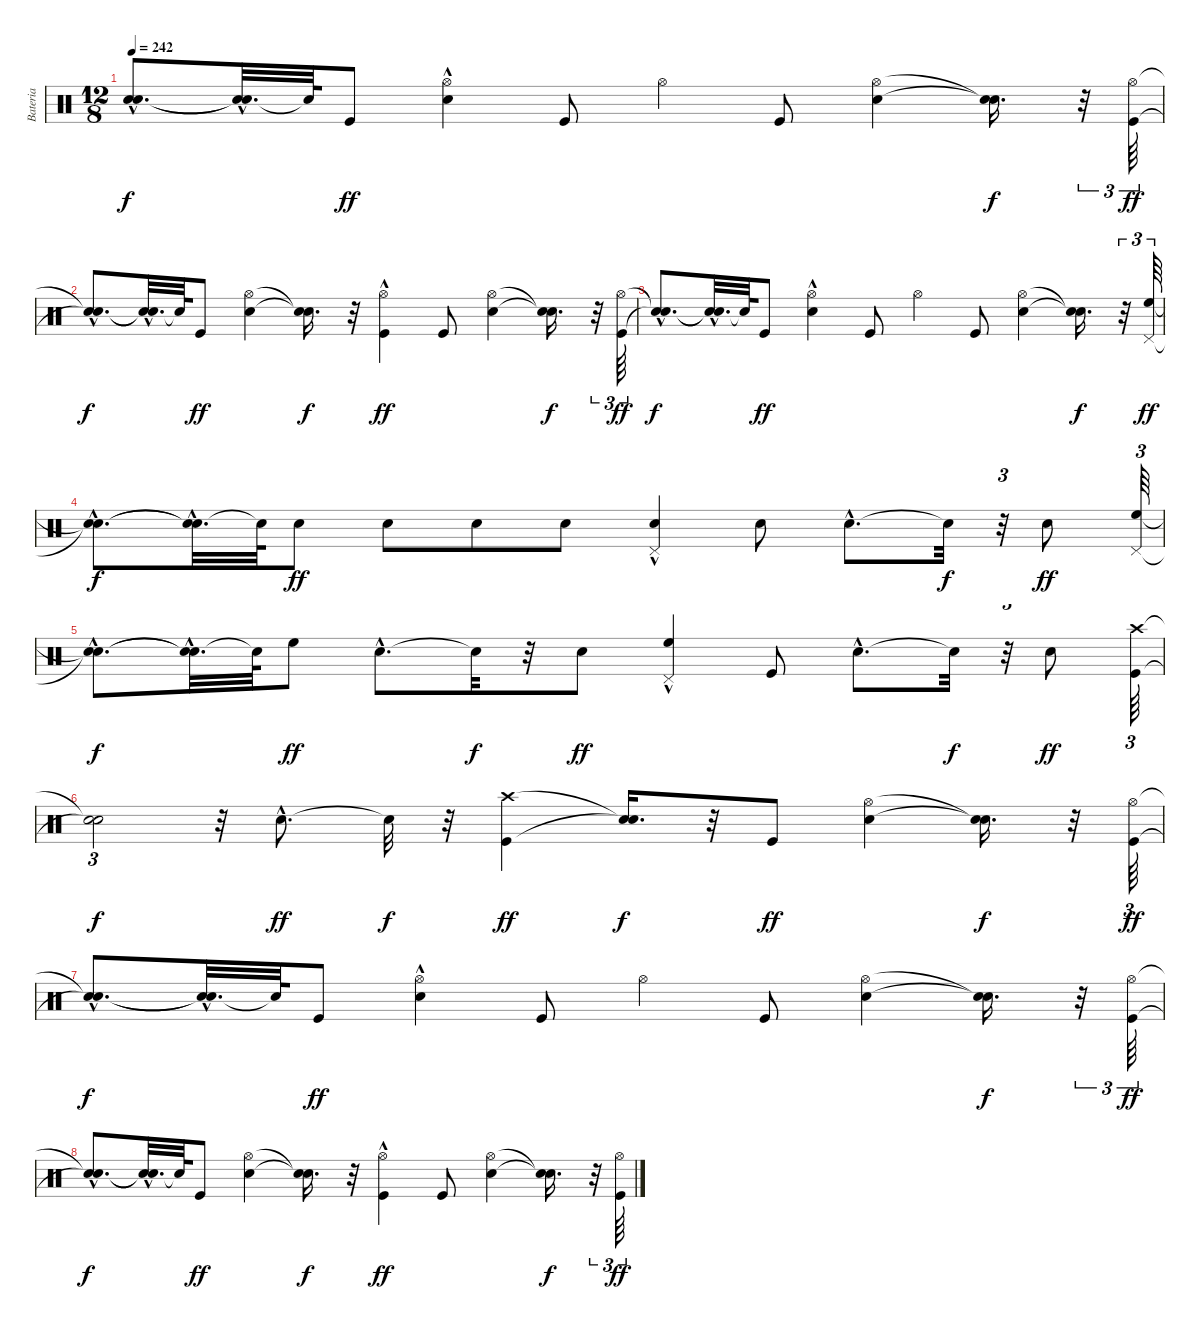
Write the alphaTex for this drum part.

\track ("Bateria" "Bateria") {instrument percussion}
\staff {score}
\articulation defaults
\ts (12 8)
\tempo 242
\clef neutral
\ks c
("Snare (hit)"{hac t} "Snare (hit)"{hac t}).8{d dy f} ("Snare (hit)"{t} "Snare (hit)"{hac t}).32{d} "Snare (hit)"{t}.64 "Kick (hit)".8{dy ff} ("Snare (hit) 2"{hac} "Hi-Hat (open)").4 "Kick (hit)".8 "Hi-Hat (open)".4 "Kick (hit)".8 ("Snare (hit) 2" "Hi-Hat (open)").4 ("Snare (hit)"{t} "Snare (hit)"{t}).16{d dy f} r.32{tu (3 2)} ("Kick (hit)" "Hi-Hat (open)").64{tu (3 2) dy ff} |
("Snare (hit)"{hac t} "Snare (hit)"{hac t}).8{d dy f} ("Snare (hit)"{t} "Snare (hit)"{hac t}).32{d} "Snare (hit)"{t}.64 "Kick (hit)".8{dy ff} ("Snare (hit) 2" "Hi-Hat (open)").4 ("Snare (hit)"{t} "Snare (hit)"{t}).16{d dy f} r.32 ("Kick (hit)"{hac} "Hi-Hat (open)").4{dy ff} "Kick (hit)".8 ("Snare (hit) 2" "Hi-Hat (open)").4 ("Snare (hit)"{t} "Snare (hit)"{t}).16{d dy f} r.32{tu (3 2)} ("Kick (hit)" "Hi-Hat (open)").64{tu (3 2) dy ff} |
("Snare (hit)"{hac t} "Snare (hit)"{hac t}).8{d dy f} ("Snare (hit)"{t} "Snare (hit)"{hac t}).32{d} "Snare (hit)"{t}.64 "Kick (hit)".8{dy ff} ("Snare (hit) 2"{hac} "Hi-Hat (open)").4 "Kick (hit)".8 "Hi-Hat (open)".4 "Kick (hit)".8 ("Snare (hit) 2" "Hi-Hat (open)").4 ("Snare (hit)"{t} "Snare (hit)"{t}).16{d dy f} r.32{tu (3 2)} ("Pedal Hi-Hat (hit)" "High Floor Tom (hit)").64{tu (3 2) dy ff} |
("Snare (hit)"{hac t} "Snare (hit)"{hac t}).8{d dy f} ("Snare (hit)"{hac t} "Snare (hit)"{t}).32{d} "Snare (hit)"{t}.64 "Snare (hit) 2".8{dy ff} "Snare (hit) 2".8 "Snare (hit) 2".8 "Snare (hit) 2".8 ("Snare (hit) 2"{hac} "Pedal Hi-Hat (hit)").4 "Snare (hit) 2".8 "Snare (hit) 2"{hac}.8{d} "Snare (hit)"{t}.32{dy f} r.32{tu (3 2)} "Snare (hit) 2".8{dy ff} ("Pedal Hi-Hat (hit)" "High Floor Tom (hit)").64{tu (3 2)} |
("Snare (hit)"{hac t} "Snare (hit)"{hac t}).8{d dy f} ("Snare (hit)"{hac t} "Snare (hit)"{t}).32{d} "Snare (hit)"{t}.64 "High Floor Tom (hit)".8{dy ff} "Snare (hit) 2"{hac}.8{d} "Snare (hit)"{t}.32{dy f} r.32 "Snare (hit) 2".8{dy ff} ("Pedal Hi-Hat (hit)" "High Floor Tom (hit)"{hac}).4 "Kick (hit)".8 "Snare (hit) 2"{hac}.8{d} "Snare (hit)"{t}.32{dy f} r.32{tu (3 2)} "Snare (hit) 2".8{dy ff} ("Kick (hit)" "Crash high (hit)").64{tu (3 2)} |
("Snare (hit)"{t} "Snare (hit)"{t}).2{tu (3 2) dy f} r.32 "Snare (hit) 2"{hac}.8{d dy ff} "Snare (hit)"{t}.32{dy f} r.32 ("Kick (hit)" "Crash high (hit)").4{dy ff} ("Snare (hit)"{t} "Snare (hit)"{t}).16{d dy f} r.32 "Kick (hit)".8{dy ff} ("Snare (hit) 2" "Hi-Hat (open)").4 ("Snare (hit)"{t} "Snare (hit)"{t}).16{d dy f} r.32 ("Kick (hit)" "Hi-Hat (open)").64{tu (3 2) dy ff} |
("Snare (hit)"{hac t} "Snare (hit)"{hac t}).8{d dy f} ("Snare (hit)"{t} "Snare (hit)"{hac t}).32{d} "Snare (hit)"{t}.64 "Kick (hit)".8{dy ff} ("Snare (hit) 2"{hac} "Hi-Hat (open)").4 "Kick (hit)".8 "Hi-Hat (open)".4 "Kick (hit)".8 ("Snare (hit) 2" "Hi-Hat (open)").4 ("Snare (hit)"{t} "Snare (hit)"{t}).16{d dy f} r.32{tu (3 2)} ("Kick (hit)" "Hi-Hat (open)").64{tu (3 2) dy ff} |
("Snare (hit)"{hac t} "Snare (hit)"{hac t}).8{d dy f} ("Snare (hit)"{t} "Snare (hit)"{hac t}).32{d} "Snare (hit)"{t}.64 "Kick (hit)".8{dy ff} ("Snare (hit) 2" "Hi-Hat (open)").4 ("Snare (hit)"{t} "Snare (hit)"{t}).16{d dy f} r.32 ("Kick (hit)"{hac} "Hi-Hat (open)").4{dy ff} "Kick (hit)".8 ("Snare (hit) 2" "Hi-Hat (open)").4 ("Snare (hit)"{t} "Snare (hit)"{t}).16{d dy f} r.32{tu (3 2)} ("Kick (hit)" "Hi-Hat (open)").64{tu (3 2) dy ff}
